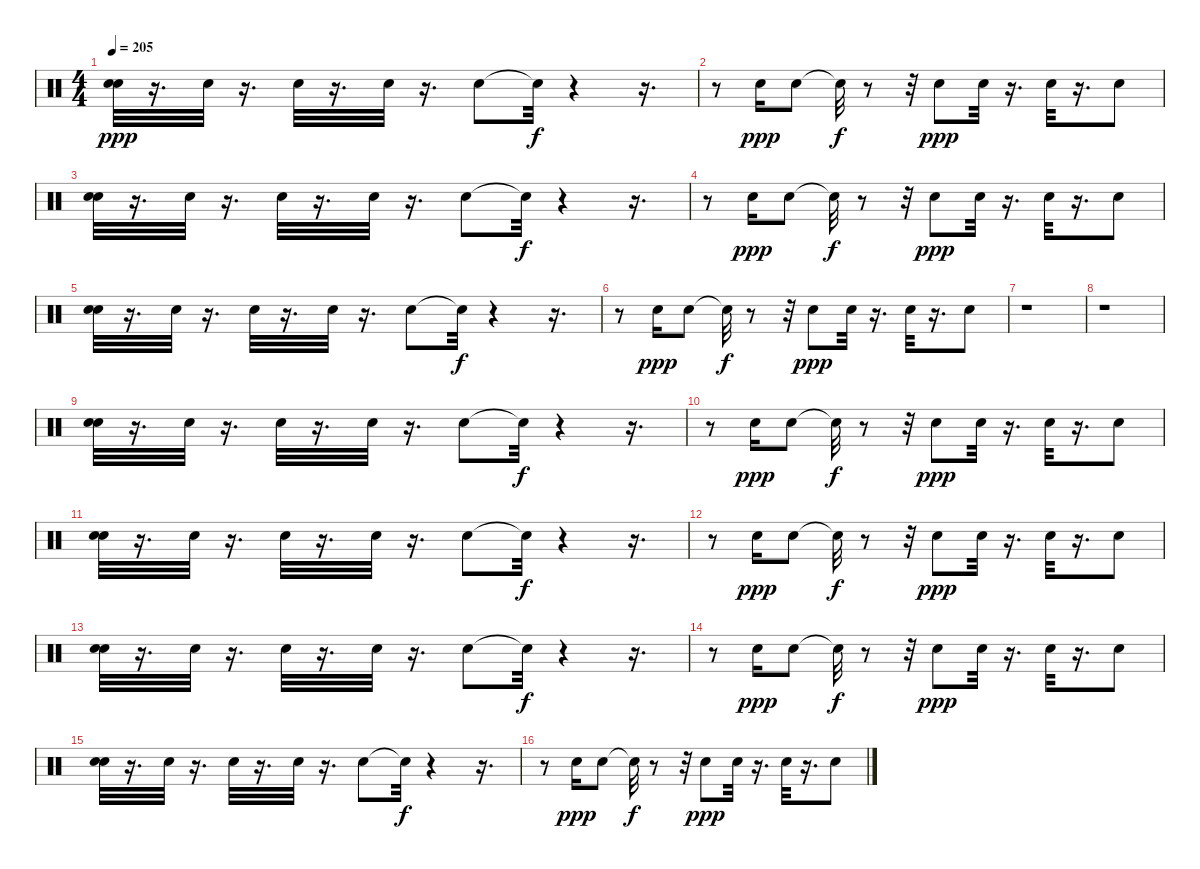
\track "" {instrument percussion}
\staff {score}
\articulation defaults
\ts (4 4)
\tempo 205
\clef neutral
\ks c
("Electric Snare (hit)" "Electric Snare (hit)").32{dy ppp} r.16{d} "Electric Snare (hit)".32 r.16{d} "Electric Snare (hit)".32 r.16{d} "Electric Snare (hit)".32 r.16{d} "Electric Snare (hit)".8 "Snare (hit)"{t}.32{dy f} r.4 r.16{d} |
r.8 "Electric Snare (hit)".16{dy ppp} "Electric Snare (hit)".8 "Snare (hit)"{t}.32{dy f} r.8 r.32 "Electric Snare (hit)".8{dy ppp} "Electric Snare (hit)".32 r.16{d} "Electric Snare (hit)".32 r.16{d} "Electric Snare (hit)".8 |
("Electric Snare (hit)" "Electric Snare (hit)").32 r.16{d} "Electric Snare (hit)".32 r.16{d} "Electric Snare (hit)".32 r.16{d} "Electric Snare (hit)".32 r.16{d} "Electric Snare (hit)".8 "Snare (hit)"{t}.32{dy f} r.4 r.16{d} |
r.8 "Electric Snare (hit)".16{dy ppp} "Electric Snare (hit)".8 "Snare (hit)"{t}.32{dy f} r.8 r.32 "Electric Snare (hit)".8{dy ppp} "Electric Snare (hit)".32 r.16{d} "Electric Snare (hit)".32 r.16{d} "Electric Snare (hit)".8 |
("Electric Snare (hit)" "Electric Snare (hit)").32 r.16{d} "Electric Snare (hit)".32 r.16{d} "Electric Snare (hit)".32 r.16{d} "Electric Snare (hit)".32 r.16{d} "Electric Snare (hit)".8 "Snare (hit)"{t}.32{dy f} r.4 r.16{d} |
r.8 "Electric Snare (hit)".16{dy ppp} "Electric Snare (hit)".8 "Snare (hit)"{t}.32{dy f} r.8 r.32 "Electric Snare (hit)".8{dy ppp} "Electric Snare (hit)".32 r.16{d} "Electric Snare (hit)".32 r.16{d} "Electric Snare (hit)".8 |
r.1 |
r.1 |
("Electric Snare (hit)" "Electric Snare (hit)").32 r.16{d} "Electric Snare (hit)".32 r.16{d} "Electric Snare (hit)".32 r.16{d} "Electric Snare (hit)".32 r.16{d} "Electric Snare (hit)".8 "Snare (hit)"{t}.32{dy f} r.4 r.16{d} |
r.8 "Electric Snare (hit)".16{dy ppp} "Electric Snare (hit)".8 "Snare (hit)"{t}.32{dy f} r.8 r.32 "Electric Snare (hit)".8{dy ppp} "Electric Snare (hit)".32 r.16{d} "Electric Snare (hit)".32 r.16{d} "Electric Snare (hit)".8 |
("Electric Snare (hit)" "Electric Snare (hit)").32 r.16{d} "Electric Snare (hit)".32 r.16{d} "Electric Snare (hit)".32 r.16{d} "Electric Snare (hit)".32 r.16{d} "Electric Snare (hit)".8 "Snare (hit)"{t}.32{dy f} r.4 r.16{d} |
r.8 "Electric Snare (hit)".16{dy ppp} "Electric Snare (hit)".8 "Snare (hit)"{t}.32{dy f} r.8 r.32 "Electric Snare (hit)".8{dy ppp} "Electric Snare (hit)".32 r.16{d} "Electric Snare (hit)".32 r.16{d} "Electric Snare (hit)".8 |
("Electric Snare (hit)" "Electric Snare (hit)").32 r.16{d} "Electric Snare (hit)".32 r.16{d} "Electric Snare (hit)".32 r.16{d} "Electric Snare (hit)".32 r.16{d} "Electric Snare (hit)".8 "Snare (hit)"{t}.32{dy f} r.4 r.16{d} |
r.8 "Electric Snare (hit)".16{dy ppp} "Electric Snare (hit)".8 "Snare (hit)"{t}.32{dy f} r.8 r.32 "Electric Snare (hit)".8{dy ppp} "Electric Snare (hit)".32 r.16{d} "Electric Snare (hit)".32 r.16{d} "Electric Snare (hit)".8 |
("Electric Snare (hit)" "Electric Snare (hit)").32 r.16{d} "Electric Snare (hit)".32 r.16{d} "Electric Snare (hit)".32 r.16{d} "Electric Snare (hit)".32 r.16{d} "Electric Snare (hit)".8 "Snare (hit)"{t}.32{dy f} r.4 r.16{d} |
r.8 "Electric Snare (hit)".16{dy ppp} "Electric Snare (hit)".8 "Snare (hit)"{t}.32{dy f} r.8 r.32 "Electric Snare (hit)".8{dy ppp} "Electric Snare (hit)".32 r.16{d} "Electric Snare (hit)".32 r.16{d} "Electric Snare (hit)".8
